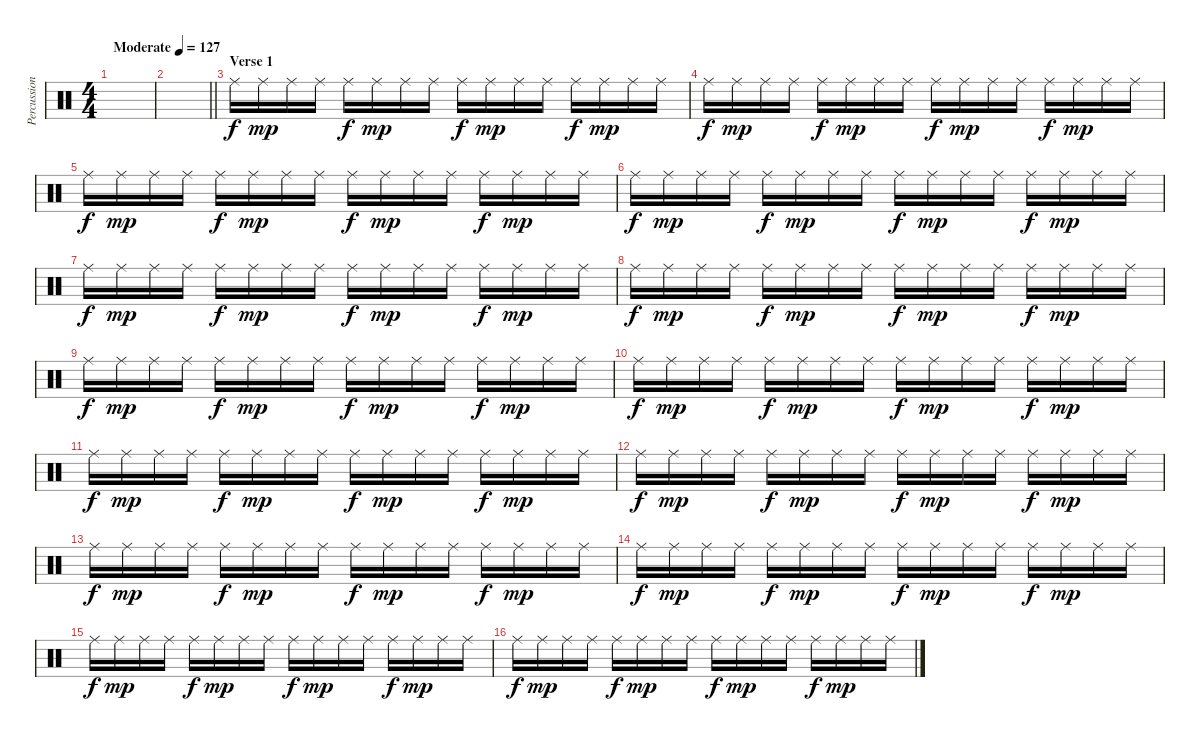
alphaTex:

\track ("Percussion" "Percussion") {instrument percussion}
\staff {score}
\articulation defaults
\ts (4 4)
\tempo (127 "Moderate")
\clef neutral
\ks c
|
\barLineRight lightlight
|
\section ("" "Verse 1")
"Ride (middle)".16 "Ride (middle)".16{dy mp} "Ride (middle)".16 "Ride (middle)".16 "Ride (middle)".16{dy f} "Ride (middle)".16{dy mp} "Ride (middle)".16 "Ride (middle)".16 "Ride (middle)".16{dy f} "Ride (middle)".16{dy mp} "Ride (middle)".16 "Ride (middle)".16 "Ride (middle)".16{dy f} "Ride (middle)".16{dy mp} "Ride (middle)".16 "Ride (middle)".16 |
"Ride (middle)".16{dy f} "Ride (middle)".16{dy mp} "Ride (middle)".16 "Ride (middle)".16 "Ride (middle)".16{dy f} "Ride (middle)".16{dy mp} "Ride (middle)".16 "Ride (middle)".16 "Ride (middle)".16{dy f} "Ride (middle)".16{dy mp} "Ride (middle)".16 "Ride (middle)".16 "Ride (middle)".16{dy f} "Ride (middle)".16{dy mp} "Ride (middle)".16 "Ride (middle)".16 |
"Ride (middle)".16{dy f} "Ride (middle)".16{dy mp} "Ride (middle)".16 "Ride (middle)".16 "Ride (middle)".16{dy f} "Ride (middle)".16{dy mp} "Ride (middle)".16 "Ride (middle)".16 "Ride (middle)".16{dy f} "Ride (middle)".16{dy mp} "Ride (middle)".16 "Ride (middle)".16 "Ride (middle)".16{dy f} "Ride (middle)".16{dy mp} "Ride (middle)".16 "Ride (middle)".16 |
"Ride (middle)".16{dy f} "Ride (middle)".16{dy mp} "Ride (middle)".16 "Ride (middle)".16 "Ride (middle)".16{dy f} "Ride (middle)".16{dy mp} "Ride (middle)".16 "Ride (middle)".16 "Ride (middle)".16{dy f} "Ride (middle)".16{dy mp} "Ride (middle)".16 "Ride (middle)".16 "Ride (middle)".16{dy f} "Ride (middle)".16{dy mp} "Ride (middle)".16 "Ride (middle)".16 |
"Ride (middle)".16{dy f} "Ride (middle)".16{dy mp} "Ride (middle)".16 "Ride (middle)".16 "Ride (middle)".16{dy f} "Ride (middle)".16{dy mp} "Ride (middle)".16 "Ride (middle)".16 "Ride (middle)".16{dy f} "Ride (middle)".16{dy mp} "Ride (middle)".16 "Ride (middle)".16 "Ride (middle)".16{dy f} "Ride (middle)".16{dy mp} "Ride (middle)".16 "Ride (middle)".16 |
"Ride (middle)".16{dy f} "Ride (middle)".16{dy mp} "Ride (middle)".16 "Ride (middle)".16 "Ride (middle)".16{dy f} "Ride (middle)".16{dy mp} "Ride (middle)".16 "Ride (middle)".16 "Ride (middle)".16{dy f} "Ride (middle)".16{dy mp} "Ride (middle)".16 "Ride (middle)".16 "Ride (middle)".16{dy f} "Ride (middle)".16{dy mp} "Ride (middle)".16 "Ride (middle)".16 |
"Ride (middle)".16{dy f} "Ride (middle)".16{dy mp} "Ride (middle)".16 "Ride (middle)".16 "Ride (middle)".16{dy f} "Ride (middle)".16{dy mp} "Ride (middle)".16 "Ride (middle)".16 "Ride (middle)".16{dy f} "Ride (middle)".16{dy mp} "Ride (middle)".16 "Ride (middle)".16 "Ride (middle)".16{dy f} "Ride (middle)".16{dy mp} "Ride (middle)".16 "Ride (middle)".16 |
"Ride (middle)".16{dy f} "Ride (middle)".16{dy mp} "Ride (middle)".16 "Ride (middle)".16 "Ride (middle)".16{dy f} "Ride (middle)".16{dy mp} "Ride (middle)".16 "Ride (middle)".16 "Ride (middle)".16{dy f} "Ride (middle)".16{dy mp} "Ride (middle)".16 "Ride (middle)".16 "Ride (middle)".16{dy f} "Ride (middle)".16{dy mp} "Ride (middle)".16 "Ride (middle)".16 |
"Ride (middle)".16{dy f} "Ride (middle)".16{dy mp} "Ride (middle)".16 "Ride (middle)".16 "Ride (middle)".16{dy f} "Ride (middle)".16{dy mp} "Ride (middle)".16 "Ride (middle)".16 "Ride (middle)".16{dy f} "Ride (middle)".16{dy mp} "Ride (middle)".16 "Ride (middle)".16 "Ride (middle)".16{dy f} "Ride (middle)".16{dy mp} "Ride (middle)".16 "Ride (middle)".16 |
"Ride (middle)".16{dy f} "Ride (middle)".16{dy mp} "Ride (middle)".16 "Ride (middle)".16 "Ride (middle)".16{dy f} "Ride (middle)".16{dy mp} "Ride (middle)".16 "Ride (middle)".16 "Ride (middle)".16{dy f} "Ride (middle)".16{dy mp} "Ride (middle)".16 "Ride (middle)".16 "Ride (middle)".16{dy f} "Ride (middle)".16{dy mp} "Ride (middle)".16 "Ride (middle)".16 |
"Ride (middle)".16{dy f} "Ride (middle)".16{dy mp} "Ride (middle)".16 "Ride (middle)".16 "Ride (middle)".16{dy f} "Ride (middle)".16{dy mp} "Ride (middle)".16 "Ride (middle)".16 "Ride (middle)".16{dy f} "Ride (middle)".16{dy mp} "Ride (middle)".16 "Ride (middle)".16 "Ride (middle)".16{dy f} "Ride (middle)".16{dy mp} "Ride (middle)".16 "Ride (middle)".16 |
"Ride (middle)".16{dy f} "Ride (middle)".16{dy mp} "Ride (middle)".16 "Ride (middle)".16 "Ride (middle)".16{dy f} "Ride (middle)".16{dy mp} "Ride (middle)".16 "Ride (middle)".16 "Ride (middle)".16{dy f} "Ride (middle)".16{dy mp} "Ride (middle)".16 "Ride (middle)".16 "Ride (middle)".16{dy f} "Ride (middle)".16{dy mp} "Ride (middle)".16 "Ride (middle)".16 |
"Ride (middle)".16{dy f} "Ride (middle)".16{dy mp} "Ride (middle)".16 "Ride (middle)".16 "Ride (middle)".16{dy f} "Ride (middle)".16{dy mp} "Ride (middle)".16 "Ride (middle)".16 "Ride (middle)".16{dy f} "Ride (middle)".16{dy mp} "Ride (middle)".16 "Ride (middle)".16 "Ride (middle)".16{dy f} "Ride (middle)".16{dy mp} "Ride (middle)".16 "Ride (middle)".16 |
"Ride (middle)".16{dy f} "Ride (middle)".16{dy mp} "Ride (middle)".16 "Ride (middle)".16 "Ride (middle)".16{dy f} "Ride (middle)".16{dy mp} "Ride (middle)".16 "Ride (middle)".16 "Ride (middle)".16{dy f} "Ride (middle)".16{dy mp} "Ride (middle)".16 "Ride (middle)".16 "Ride (middle)".16{dy f} "Ride (middle)".16{dy mp} "Ride (middle)".16 "Ride (middle)".16
